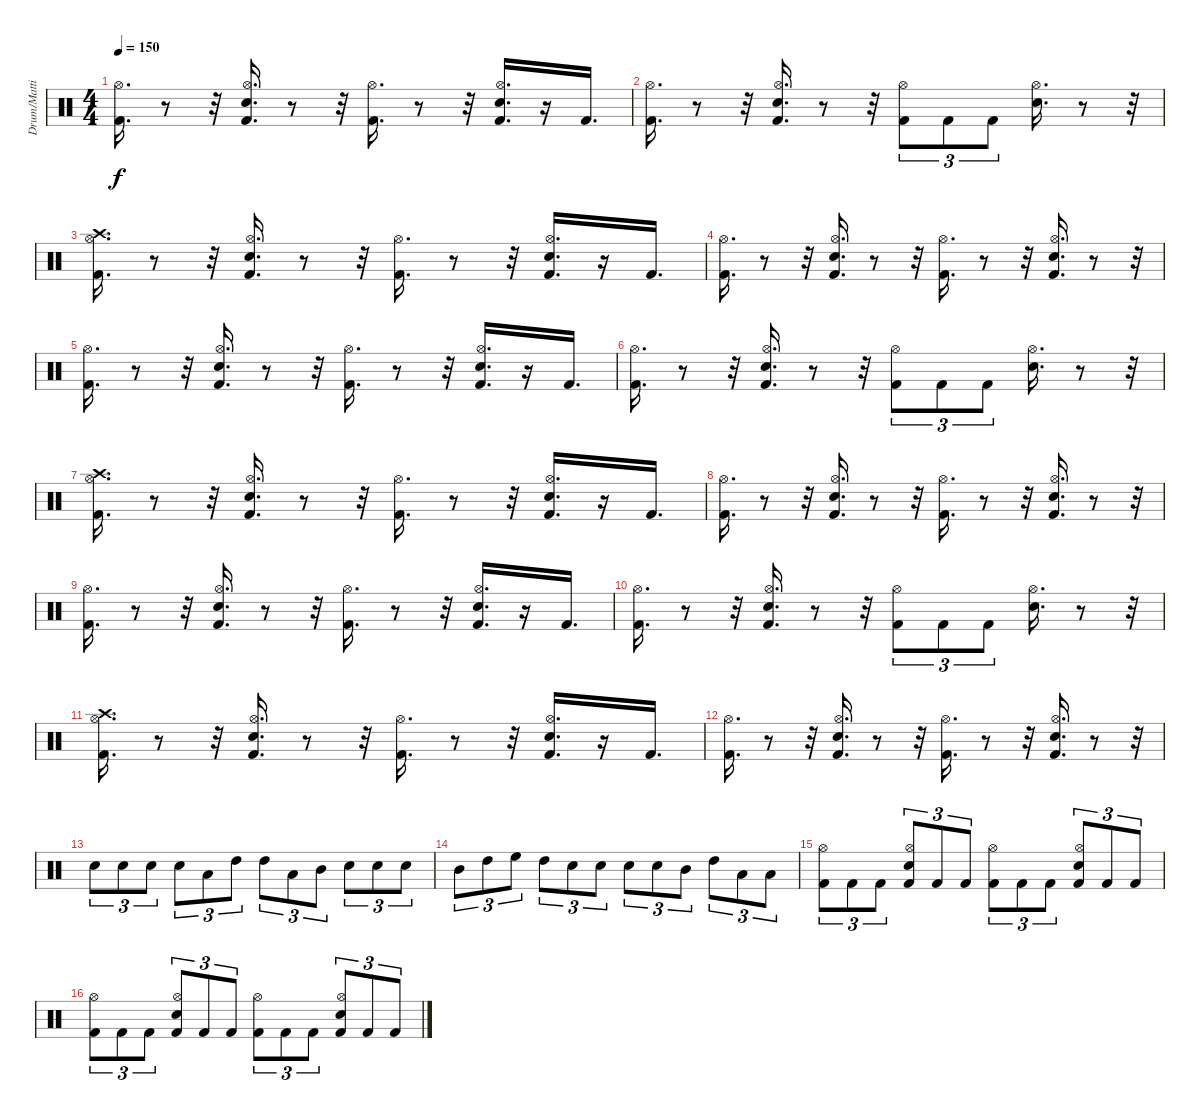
\track ("Drum/Matti" "Drum/Matti") {instrument percussion}
\staff {score}
\articulation defaults
\ts (4 4)
\tempo 150
\clef neutral
\ks c
("Kick (hit) 2" "Hi-Hat (open)").16{d dy f} r.8 r.32 ("Kick (hit) 2" "Hi-Hat (open)" "Electric Snare (hit)").16{d} r.8 r.32 ("Kick (hit) 2" "Hi-Hat (open)").16{d} r.8 r.32 ("Kick (hit) 2" "Hi-Hat (open)" "Electric Snare (hit)").16{d} r.16 "Kick (hit) 2".16{d} |
("Kick (hit) 2" "Hi-Hat (open)").16{d} r.8 r.32 ("Kick (hit) 2" "Hi-Hat (open)" "Electric Snare (hit)").16{d} r.8 r.32 ("Kick (hit) 2" "Hi-Hat (open)").8{tu (3 2)} "Kick (hit) 2".8{tu (3 2)} "Kick (hit) 2".8{tu (3 2)} ("Hi-Hat (open)" "Electric Snare (hit)").16{d} r.8 r.32 |
("Kick (hit) 2" "Hi-Hat (open)" "Crash high (hit)").16{d} r.8 r.32 ("Kick (hit) 2" "Hi-Hat (open)" "Electric Snare (hit)").16{d} r.8 r.32 ("Kick (hit) 2" "Hi-Hat (open)").16{d} r.8 r.32 ("Kick (hit) 2" "Hi-Hat (open)" "Electric Snare (hit)").16{d} r.16 "Kick (hit) 2".16{d} |
("Kick (hit) 2" "Hi-Hat (open)").16{d} r.8 r.32 ("Kick (hit) 2" "Hi-Hat (open)" "Electric Snare (hit)").16{d} r.8 r.32 ("Kick (hit) 2" "Hi-Hat (open)").16{d} r.8 r.32 ("Kick (hit) 2" "Hi-Hat (open)" "Electric Snare (hit)").16{d} r.8 r.32 |
("Kick (hit) 2" "Hi-Hat (open)").16{d} r.8 r.32 ("Kick (hit) 2" "Hi-Hat (open)" "Electric Snare (hit)").16{d} r.8 r.32 ("Kick (hit) 2" "Hi-Hat (open)").16{d} r.8 r.32 ("Kick (hit) 2" "Hi-Hat (open)" "Electric Snare (hit)").16{d} r.16 "Kick (hit) 2".16{d} |
("Kick (hit) 2" "Hi-Hat (open)").16{d} r.8 r.32 ("Kick (hit) 2" "Hi-Hat (open)" "Electric Snare (hit)").16{d} r.8 r.32 ("Kick (hit) 2" "Hi-Hat (open)").8{tu (3 2)} "Kick (hit) 2".8{tu (3 2)} "Kick (hit) 2".8{tu (3 2)} ("Hi-Hat (open)" "Electric Snare (hit)").16{d} r.8 r.32 |
("Kick (hit) 2" "Hi-Hat (open)" "Crash high (hit)").16{d} r.8 r.32 ("Kick (hit) 2" "Hi-Hat (open)" "Electric Snare (hit)").16{d} r.8 r.32 ("Kick (hit) 2" "Hi-Hat (open)").16{d} r.8 r.32 ("Kick (hit) 2" "Hi-Hat (open)" "Electric Snare (hit)").16{d} r.16 "Kick (hit) 2".16{d} |
("Kick (hit) 2" "Hi-Hat (open)").16{d} r.8 r.32 ("Kick (hit) 2" "Hi-Hat (open)" "Electric Snare (hit)").16{d} r.8 r.32 ("Kick (hit) 2" "Hi-Hat (open)").16{d} r.8 r.32 ("Kick (hit) 2" "Hi-Hat (open)" "Electric Snare (hit)").16{d} r.8 r.32 |
("Kick (hit) 2" "Hi-Hat (open)").16{d} r.8 r.32 ("Kick (hit) 2" "Hi-Hat (open)" "Electric Snare (hit)").16{d} r.8 r.32 ("Kick (hit) 2" "Hi-Hat (open)").16{d} r.8 r.32 ("Kick (hit) 2" "Hi-Hat (open)" "Electric Snare (hit)").16{d} r.16 "Kick (hit) 2".16{d} |
("Kick (hit) 2" "Hi-Hat (open)").16{d} r.8 r.32 ("Kick (hit) 2" "Hi-Hat (open)" "Electric Snare (hit)").16{d} r.8 r.32 ("Kick (hit) 2" "Hi-Hat (open)").8{tu (3 2)} "Kick (hit) 2".8{tu (3 2)} "Kick (hit) 2".8{tu (3 2)} ("Hi-Hat (open)" "Electric Snare (hit)").16{d} r.8 r.32 |
("Kick (hit) 2" "Hi-Hat (open)" "Crash high (hit)").16{d} r.8 r.32 ("Kick (hit) 2" "Hi-Hat (open)" "Electric Snare (hit)").16{d} r.8 r.32 ("Kick (hit) 2" "Hi-Hat (open)").16{d} r.8 r.32 ("Kick (hit) 2" "Hi-Hat (open)" "Electric Snare (hit)").16{d} r.16 "Kick (hit) 2".16{d} |
("Kick (hit) 2" "Hi-Hat (open)").16{d} r.8 r.32 ("Kick (hit) 2" "Hi-Hat (open)" "Electric Snare (hit)").16{d} r.8 r.32 ("Kick (hit) 2" "Hi-Hat (open)").16{d} r.8 r.32 ("Kick (hit) 2" "Hi-Hat (open)" "Electric Snare (hit)").16{d} r.8 r.32 |
"Electric Snare (hit)".8{tu (3 2)} "Electric Snare (hit)".8{tu (3 2)} "Electric Snare (hit)".8{tu (3 2)} "Electric Snare (hit)".8{tu (3 2)} "Low Tom (hit)".8{tu (3 2)} "High Tom (hit)".8{tu (3 2)} "High Tom (hit)".8{tu (3 2)} "Low Tom (hit)".8{tu (3 2)} "Mid Tom (hit)".8{tu (3 2)} "Electric Snare (hit)".8{tu (3 2)} "Electric Snare (hit)".8{tu (3 2)} "Electric Snare (hit)".8{tu (3 2)} |
"Mid Tom (hit)".8{tu (3 2)} "High Tom (hit)".8{tu (3 2)} "High Floor Tom (hit)".8{tu (3 2)} "High Tom (hit)".8{tu (3 2)} "Electric Snare (hit)".8{tu (3 2)} "Electric Snare (hit)".8{tu (3 2)} "Electric Snare (hit)".8{tu (3 2)} "Electric Snare (hit)".8{tu (3 2)} "Mid Tom (hit)".8{tu (3 2)} "High Tom (hit)".8{tu (3 2)} "Low Tom (hit)".8{tu (3 2)} "Low Tom (hit)".8{tu (3 2)} |
("Kick (hit) 2" "Hi-Hat (open)").8{tu (3 2)} "Kick (hit) 2".8{tu (3 2)} "Kick (hit) 2".8{tu (3 2)} ("Kick (hit) 2" "Hi-Hat (open)" "Electric Snare (hit)").8{tu (3 2)} "Kick (hit) 2".8{tu (3 2)} "Kick (hit) 2".8{tu (3 2)} ("Kick (hit) 2" "Hi-Hat (open)").8{tu (3 2)} "Kick (hit) 2".8{tu (3 2)} "Kick (hit) 2".8{tu (3 2)} ("Kick (hit) 2" "Hi-Hat (open)" "Electric Snare (hit)").8{tu (3 2)} "Kick (hit) 2".8{tu (3 2)} "Kick (hit) 2".8{tu (3 2)} |
("Kick (hit) 2" "Hi-Hat (open)").8{tu (3 2)} "Kick (hit) 2".8{tu (3 2)} "Kick (hit) 2".8{tu (3 2)} ("Kick (hit) 2" "Hi-Hat (open)" "Electric Snare (hit)").8{tu (3 2)} "Kick (hit) 2".8{tu (3 2)} "Kick (hit) 2".8{tu (3 2)} ("Kick (hit) 2" "Hi-Hat (open)").8{tu (3 2)} "Kick (hit) 2".8{tu (3 2)} "Kick (hit) 2".8{tu (3 2)} ("Kick (hit) 2" "Hi-Hat (open)" "Electric Snare (hit)").8{tu (3 2)} "Kick (hit) 2".8{tu (3 2)} "Kick (hit) 2".8{tu (3 2)}
